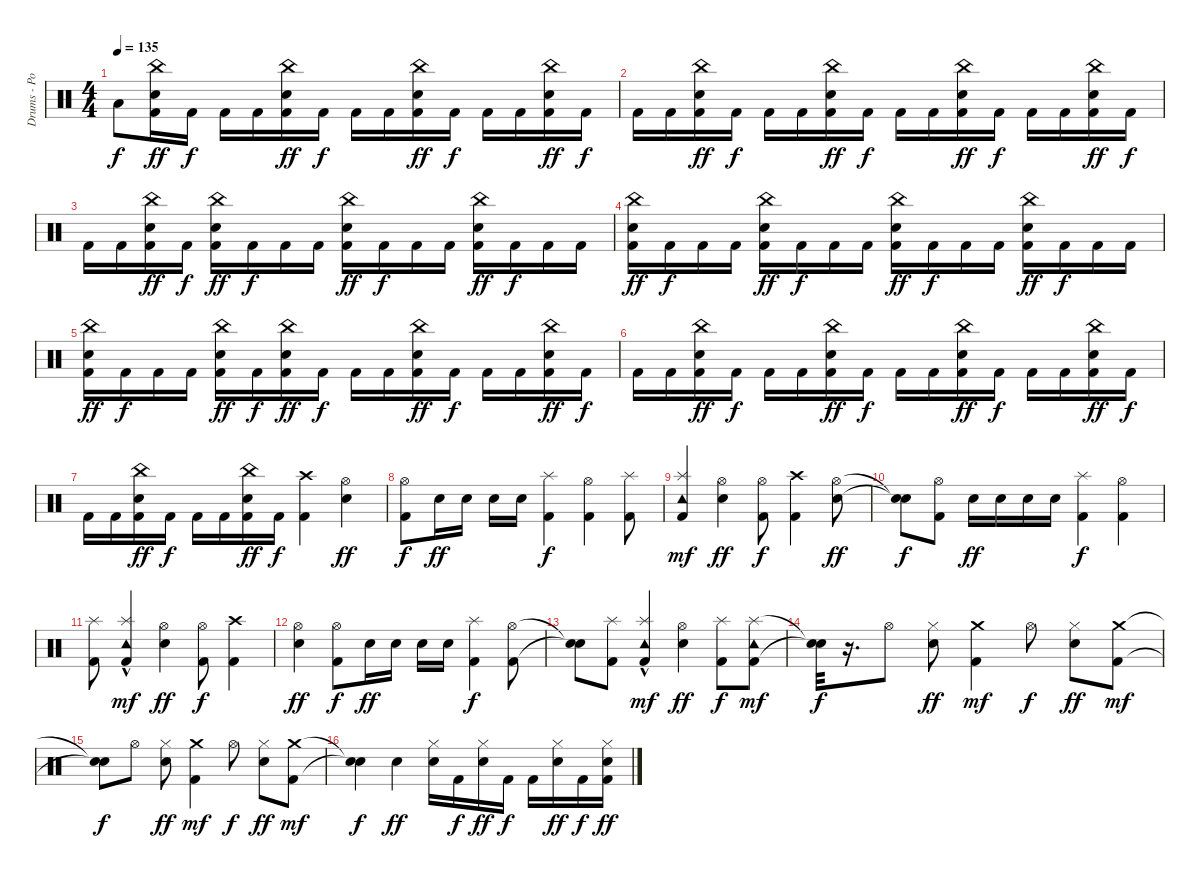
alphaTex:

\track ("Drums - Portnoy" "Drums - Po") {instrument percussion}
\staff {score}
\articulation defaults
\ts (4 4)
\tempo 135
\clef neutral
\ks c "Low Floor Tom (hit)".8{dy f}
("Kick (hit) 2" "Electric Snare (hit)" "China (hit)").16{dy ff} "Kick (hit) 2".16{dy f} "Kick (hit) 2".16 "Kick (hit) 2".16 ("Kick (hit) 2" "Electric Snare (hit)" "China (hit)").16{dy ff} "Kick (hit) 2".16{dy f} "Kick (hit) 2".16 "Kick (hit) 2".16 ("Kick (hit) 2" "Electric Snare (hit)" "China (hit)").16{dy ff} "Kick (hit) 2".16{dy f} "Kick (hit) 2".16 "Kick (hit) 2".16 ("Kick (hit) 2" "Electric Snare (hit)" "China (hit)").16{dy ff} "Kick (hit) 2".16{dy f} |
"Kick (hit) 2".16 "Kick (hit) 2".16 ("Kick (hit) 2" "Electric Snare (hit)" "China (hit)").16{dy ff} "Kick (hit) 2".16{dy f} "Kick (hit) 2".16 "Kick (hit) 2".16 ("Kick (hit) 2" "Electric Snare (hit)" "China (hit)").16{dy ff} "Kick (hit) 2".16{dy f} "Kick (hit) 2".16 "Kick (hit) 2".16 ("Kick (hit) 2" "Electric Snare (hit)" "China (hit)").16{dy ff} "Kick (hit) 2".16{dy f} "Kick (hit) 2".16 "Kick (hit) 2".16 ("Kick (hit) 2" "Electric Snare (hit)" "China (hit)").16{dy ff} "Kick (hit) 2".16{dy f} |
"Kick (hit) 2".16 "Kick (hit) 2".16 ("Kick (hit) 2" "Electric Snare (hit)" "China (hit)").16{dy ff} "Kick (hit) 2".16{dy f} ("Kick (hit) 2" "Electric Snare (hit)" "China (hit)").16{dy ff} "Kick (hit) 2".16{dy f} "Kick (hit) 2".16 "Kick (hit) 2".16 ("Kick (hit) 2" "Electric Snare (hit)" "China (hit)").16{dy ff} "Kick (hit) 2".16{dy f} "Kick (hit) 2".16 "Kick (hit) 2".16 ("Kick (hit) 2" "Electric Snare (hit)" "China (hit)").16{dy ff} "Kick (hit) 2".16{dy f} "Kick (hit) 2".16 "Kick (hit) 2".16 |
("Kick (hit) 2" "Electric Snare (hit)" "China (hit)").16{dy ff} "Kick (hit) 2".16{dy f} "Kick (hit) 2".16 "Kick (hit) 2".16 ("Kick (hit) 2" "Electric Snare (hit)" "China (hit)").16{dy ff} "Kick (hit) 2".16{dy f} "Kick (hit) 2".16 "Kick (hit) 2".16 ("Kick (hit) 2" "Electric Snare (hit)" "China (hit)").16{dy ff} "Kick (hit) 2".16{dy f} "Kick (hit) 2".16 "Kick (hit) 2".16 ("Kick (hit) 2" "Electric Snare (hit)" "China (hit)").16{dy ff} "Kick (hit) 2".16{dy f} "Kick (hit) 2".16 "Kick (hit) 2".16 |
("Kick (hit) 2" "Electric Snare (hit)" "China (hit)").16{dy ff} "Kick (hit) 2".16{dy f} "Kick (hit) 2".16 "Kick (hit) 2".16 ("Kick (hit) 2" "Electric Snare (hit)" "China (hit)").16{dy ff} "Kick (hit) 2".16{dy f} ("Kick (hit) 2" "Electric Snare (hit)" "China (hit)").16{dy ff} "Kick (hit) 2".16{dy f} "Kick (hit) 2".16 "Kick (hit) 2".16 ("Kick (hit) 2" "Electric Snare (hit)" "China (hit)").16{dy ff} "Kick (hit) 2".16{dy f} "Kick (hit) 2".16 "Kick (hit) 2".16 ("Kick (hit) 2" "Electric Snare (hit)" "China (hit)").16{dy ff} "Kick (hit) 2".16{dy f} |
"Kick (hit) 2".16 "Kick (hit) 2".16 ("Kick (hit) 2" "Electric Snare (hit)" "China (hit)").16{dy ff} "Kick (hit) 2".16{dy f} "Kick (hit) 2".16 "Kick (hit) 2".16 ("Kick (hit) 2" "Electric Snare (hit)" "China (hit)").16{dy ff} "Kick (hit) 2".16{dy f} "Kick (hit) 2".16 "Kick (hit) 2".16 ("Kick (hit) 2" "Electric Snare (hit)" "China (hit)").16{dy ff} "Kick (hit) 2".16{dy f} "Kick (hit) 2".16 "Kick (hit) 2".16 ("Kick (hit) 2" "Electric Snare (hit)" "China (hit)").16{dy ff} "Kick (hit) 2".16{dy f} |
"Kick (hit) 2".16 "Kick (hit) 2".16 ("Kick (hit) 2" "Electric Snare (hit)" "China (hit)").16{dy ff} "Kick (hit) 2".16{dy f} "Kick (hit) 2".16 "Kick (hit) 2".16 ("Kick (hit) 2" "Electric Snare (hit)" "China (hit)").16{dy ff} "Kick (hit) 2".16{dy f} ("Crash high (hit)" "Kick (hit) 2").4 ("Hi-Hat (open)" "Electric Snare (hit)").4{dy ff} |
("Kick (hit) 2" "Hi-Hat (open)").8{dy f} "Electric Snare (hit)".16{dy ff} "Electric Snare (hit)".16 "Electric Snare (hit)".16 "Electric Snare (hit)".16 ("Kick (hit) 2" "Splash (hit)").4{dy f} ("Hi-Hat (open)" "Kick (hit) 2").4 ("Kick (hit) 2" "Splash (hit)").8 |
("Kick (hit) 2" "Splash (hit)" "Tambourine (hit)").4{dy mf} ("Hi-Hat (open)" "Electric Snare (hit)").4{dy ff} ("Kick (hit) 2" "Hi-Hat (open)").8{dy f} ("Kick (hit) 2" "Crash high (hit)").4 ("Hi-Hat (open)" "Electric Snare (hit)").8{dy ff} |
("Snare (hit)"{t} "Snare (hit)"{t}).8{dy f} ("Kick (hit) 2" "Hi-Hat (open)").8 "Electric Snare (hit)".16{dy ff} "Electric Snare (hit)".16 "Electric Snare (hit)".16 "Electric Snare (hit)".16 ("Kick (hit) 2" "Splash (hit)").4{dy f} ("Hi-Hat (open)" "Kick (hit) 2").4 |
("Kick (hit) 2" "Splash (hit)").8 ("Kick (hit) 2" "Splash (hit)"{hac} "Tambourine (hit)"{hac}).4{dy mf} ("Hi-Hat (open)" "Electric Snare (hit)").4{dy ff} ("Kick (hit) 2" "Hi-Hat (open)").8{dy f} ("Kick (hit) 2" "Crash high (hit)").4 |
("Hi-Hat (open)" "Electric Snare (hit)").4{dy ff} ("Kick (hit) 2" "Hi-Hat (open)").8{dy f} "Electric Snare (hit)".16{dy ff} "Electric Snare (hit)".16 "Electric Snare (hit)".16 "Electric Snare (hit)".16 ("Kick (hit) 2" "Splash (hit)").4{dy f} ("Hi-Hat (open)" "Kick (hit) 2").8 |
("Snare (hit)"{t} "Snare (hit)"{t}).8 ("Kick (hit) 2" "Splash (hit)").8 ("Kick (hit) 2" "Splash (hit)"{hac} "Tambourine (hit)"{hac}).4{dy mf} ("Hi-Hat (open)" "Electric Snare (hit)").4{dy ff} ("Kick (hit) 2" "Splash (hit)").8{dy f} ("Kick (hit) 2" "Splash (hit)" "Tambourine (hit)").8{dy mf} |
("Snare (hit)"{t} "Snare (hit)"{t}).32{dy f} r.16{d} "Hi-Hat (open)".8 ("Hi-Hat (closed)" "Electric Snare (hit)").8{dy ff} ("Kick (hit) 2" "Crash medium (hit)").4{dy mf} "Hi-Hat (open)".8{dy f} ("Hi-Hat (closed)" "Electric Snare (hit)").8{dy ff} ("Kick (hit) 2" "Crash medium (hit)").8{dy mf} |
("Snare (hit)"{t} "Snare (hit)"{t}).8{dy f} "Hi-Hat (open)".8 ("Hi-Hat (closed)" "Electric Snare (hit)").8{dy ff} ("Kick (hit) 2" "Crash medium (hit)").4{dy mf} "Hi-Hat (open)".8{dy f} ("Hi-Hat (closed)" "Electric Snare (hit)").8{dy ff} ("Kick (hit) 2" "Crash medium (hit)").8{dy mf} |
("Snare (hit)"{t} "Snare (hit)"{t}).4{dy f} "Electric Snare (hit)".4{dy ff} ("Hi-Hat (closed)" "Electric Snare (hit)").16 "Kick (hit) 2".16{dy f} ("Hi-Hat (closed)" "Electric Snare (hit)").16{dy ff} "Kick (hit) 2".16{dy f} "Kick (hit) 2".16 ("Hi-Hat (closed)" "Electric Snare (hit)").16{dy ff} "Kick (hit) 2".16{dy f} ("Hi-Hat (closed)" "Kick (hit) 2" "Electric Snare (hit)").16{dy ff}
